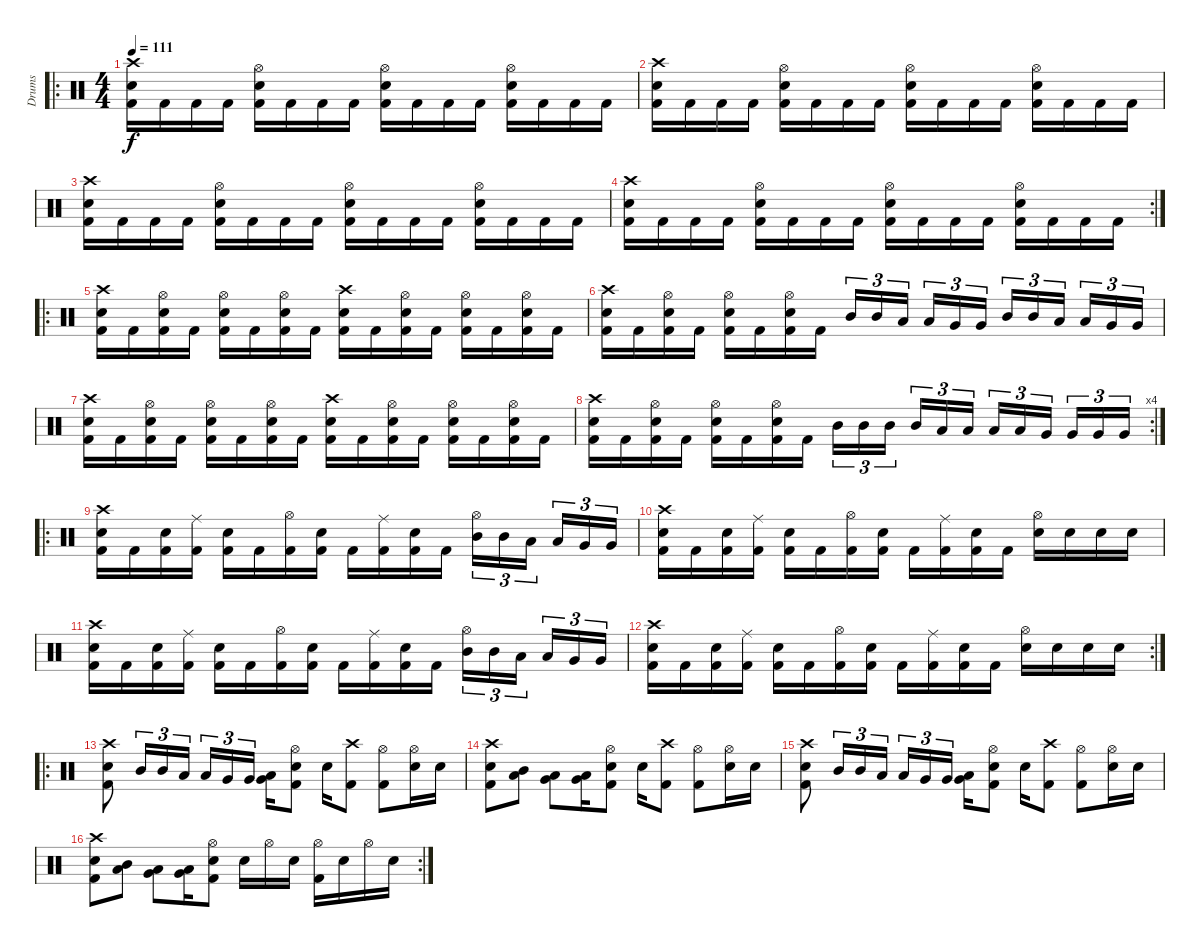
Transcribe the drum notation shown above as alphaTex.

\track ("Drums" "Drums") {instrument percussion}
\staff {score}
\articulation defaults
\ro
\ts (4 4)
\tempo 111
\clef neutral
\ks c
("Crash high (hit)" "Electric Snare (hit)" "Kick (hit) 2").16{dy f} "Kick (hit) 2".16 "Kick (hit) 2".16 "Kick (hit) 2".16 ("Hi-Hat (open)" "Electric Snare (hit)" "Kick (hit) 2").16 "Kick (hit) 2".16 "Kick (hit) 2".16 "Kick (hit) 2".16 ("Hi-Hat (open)" "Electric Snare (hit)" "Kick (hit) 2").16 "Kick (hit) 2".16 "Kick (hit) 2".16 "Kick (hit) 2".16 ("Hi-Hat (open)" "Electric Snare (hit)" "Kick (hit) 2").16 "Kick (hit) 2".16 "Kick (hit) 2".16 "Kick (hit) 2".16 |
("Crash high (hit)" "Electric Snare (hit)" "Kick (hit) 2").16 "Kick (hit) 2".16 "Kick (hit) 2".16 "Kick (hit) 2".16 ("Hi-Hat (open)" "Electric Snare (hit)" "Kick (hit) 2").16 "Kick (hit) 2".16 "Kick (hit) 2".16 "Kick (hit) 2".16 ("Hi-Hat (open)" "Electric Snare (hit)" "Kick (hit) 2").16 "Kick (hit) 2".16 "Kick (hit) 2".16 "Kick (hit) 2".16 ("Hi-Hat (open)" "Electric Snare (hit)" "Kick (hit) 2").16 "Kick (hit) 2".16 "Kick (hit) 2".16 "Kick (hit) 2".16 |
("Crash high (hit)" "Electric Snare (hit)" "Kick (hit) 2").16 "Kick (hit) 2".16 "Kick (hit) 2".16 "Kick (hit) 2".16 ("Hi-Hat (open)" "Electric Snare (hit)" "Kick (hit) 2").16 "Kick (hit) 2".16 "Kick (hit) 2".16 "Kick (hit) 2".16 ("Hi-Hat (open)" "Electric Snare (hit)" "Kick (hit) 2").16 "Kick (hit) 2".16 "Kick (hit) 2".16 "Kick (hit) 2".16 ("Hi-Hat (open)" "Electric Snare (hit)" "Kick (hit) 2").16 "Kick (hit) 2".16 "Kick (hit) 2".16 "Kick (hit) 2".16 |
\rc 2
("Crash high (hit)" "Electric Snare (hit)" "Kick (hit) 2").16 "Kick (hit) 2".16 "Kick (hit) 2".16 "Kick (hit) 2".16 ("Hi-Hat (open)" "Electric Snare (hit)" "Kick (hit) 2").16 "Kick (hit) 2".16 "Kick (hit) 2".16 "Kick (hit) 2".16 ("Hi-Hat (open)" "Electric Snare (hit)" "Kick (hit) 2").16 "Kick (hit) 2".16 "Kick (hit) 2".16 "Kick (hit) 2".16 ("Hi-Hat (open)" "Electric Snare (hit)" "Kick (hit) 2").16 "Kick (hit) 2".16 "Kick (hit) 2".16 "Kick (hit) 2".16 |
\ro
("Crash high (hit)" "Electric Snare (hit)" "Kick (hit) 2").16 "Kick (hit) 2".16 ("Hi-Hat (open)" "Electric Snare (hit)" "Kick (hit) 2").16 "Kick (hit) 2".16 ("Hi-Hat (open)" "Electric Snare (hit)" "Kick (hit) 2").16 "Kick (hit) 2".16 ("Hi-Hat (open)" "Electric Snare (hit)" "Kick (hit) 2").16 "Kick (hit) 2".16 ("Crash high (hit)" "Electric Snare (hit)" "Kick (hit) 2").16 "Kick (hit) 2".16 ("Hi-Hat (open)" "Electric Snare (hit)" "Kick (hit) 2").16 "Kick (hit) 2".16 ("Hi-Hat (open)" "Electric Snare (hit)" "Kick (hit) 2").16 "Kick (hit) 2".16 ("Hi-Hat (open)" "Electric Snare (hit)" "Kick (hit) 2").16 "Kick (hit) 2".16 |
("Crash high (hit)" "Electric Snare (hit)" "Kick (hit) 2").16 "Kick (hit) 2".16 ("Hi-Hat (open)" "Electric Snare (hit)" "Kick (hit) 2").16 "Kick (hit) 2".16 ("Hi-Hat (open)" "Electric Snare (hit)" "Kick (hit) 2").16 "Kick (hit) 2".16 ("Hi-Hat (open)" "Electric Snare (hit)" "Kick (hit) 2").16 "Kick (hit) 2".16 "Mid Tom (hit)".16{tu (3 2)} "Mid Tom (hit)".16{tu (3 2)} "Low Tom (hit)".16{tu (3 2)} "Low Tom (hit)".16{tu (3 2)} "Very Low Tom (hit)".16{tu (3 2)} "Very Low Tom (hit)".16{tu (3 2)} "Mid Tom (hit)".16{tu (3 2)} "Mid Tom (hit)".16{tu (3 2)} "Low Tom (hit)".16{tu (3 2)} "Low Tom (hit)".16{tu (3 2)} "Very Low Tom (hit)".16{tu (3 2)} "Very Low Tom (hit)".16{tu (3 2)} |
("Crash high (hit)" "Electric Snare (hit)" "Kick (hit) 2").16 "Kick (hit) 2".16 ("Hi-Hat (open)" "Electric Snare (hit)" "Kick (hit) 2").16 "Kick (hit) 2".16 ("Hi-Hat (open)" "Electric Snare (hit)" "Kick (hit) 2").16 "Kick (hit) 2".16 ("Hi-Hat (open)" "Electric Snare (hit)" "Kick (hit) 2").16 "Kick (hit) 2".16 ("Crash high (hit)" "Electric Snare (hit)" "Kick (hit) 2").16 "Kick (hit) 2".16 ("Hi-Hat (open)" "Electric Snare (hit)" "Kick (hit) 2").16 "Kick (hit) 2".16 ("Hi-Hat (open)" "Electric Snare (hit)" "Kick (hit) 2").16 "Kick (hit) 2".16 ("Hi-Hat (open)" "Electric Snare (hit)" "Kick (hit) 2").16 "Kick (hit) 2".16 |
\rc 4
("Crash high (hit)" "Electric Snare (hit)" "Kick (hit) 2").16 "Kick (hit) 2".16 ("Hi-Hat (open)" "Electric Snare (hit)" "Kick (hit) 2").16 "Kick (hit) 2".16 ("Hi-Hat (open)" "Electric Snare (hit)" "Kick (hit) 2").16 "Kick (hit) 2".16 ("Hi-Hat (open)" "Electric Snare (hit)" "Kick (hit) 2").16 "Kick (hit) 2".16 "Mid Tom (hit)".16{tu (3 2)} "Mid Tom (hit)".16{tu (3 2)} "Mid Tom (hit)".16{tu (3 2)} "Mid Tom (hit)".16{tu (3 2)} "Low Tom (hit)".16{tu (3 2)} "Low Tom (hit)".16{tu (3 2)} "Low Tom (hit)".16{tu (3 2)} "Low Tom (hit)".16{tu (3 2)} "Very Low Tom (hit)".16{tu (3 2)} "Very Low Tom (hit)".16{tu (3 2)} "Very Low Tom (hit)".16{tu (3 2)} "Very Low Tom (hit)".16{tu (3 2)} |
\ro
("Crash high (hit)" "Electric Snare (hit)" "Kick (hit) 2").16 "Kick (hit) 2".16 ("Electric Snare (hit)" "Kick (hit) 2").16 ("Ride (middle)" "Kick (hit) 2").16 ("Electric Snare (hit)" "Kick (hit) 2").16 "Kick (hit) 2".16 ("Hi-Hat (open)" "Kick (hit) 2").16 ("Electric Snare (hit)" "Kick (hit) 2").16 "Kick (hit) 2".16 ("Ride (middle)" "Kick (hit) 2").16 ("Electric Snare (hit)" "Kick (hit) 2").16 "Kick (hit) 2".16 ("Hi-Hat (open)" "Mid Tom (hit)").16{tu (3 2)} "Mid Tom (hit)".16{tu (3 2)} "Low Tom (hit)".16{tu (3 2)} "Low Tom (hit)".16{tu (3 2)} "Very Low Tom (hit)".16{tu (3 2)} "Very Low Tom (hit)".16{tu (3 2)} |
("Crash high (hit)" "Electric Snare (hit)" "Kick (hit) 2").16 "Kick (hit) 2".16 ("Electric Snare (hit)" "Kick (hit) 2").16 ("Ride (middle)" "Kick (hit) 2").16 ("Electric Snare (hit)" "Kick (hit) 2").16 "Kick (hit) 2".16 ("Hi-Hat (open)" "Kick (hit) 2").16 ("Electric Snare (hit)" "Kick (hit) 2").16 "Kick (hit) 2".16 ("Ride (middle)" "Kick (hit) 2").16 ("Electric Snare (hit)" "Kick (hit) 2").16 "Kick (hit) 2".16 ("Hi-Hat (open)" "Electric Snare (hit)").16 "Electric Snare (hit)".16 "Electric Snare (hit)".16 "Electric Snare (hit)".16 |
("Crash high (hit)" "Electric Snare (hit)" "Kick (hit) 2").16 "Kick (hit) 2".16 ("Electric Snare (hit)" "Kick (hit) 2").16 ("Ride (middle)" "Kick (hit) 2").16 ("Electric Snare (hit)" "Kick (hit) 2").16 "Kick (hit) 2".16 ("Hi-Hat (open)" "Kick (hit) 2").16 ("Electric Snare (hit)" "Kick (hit) 2").16 "Kick (hit) 2".16 ("Ride (middle)" "Kick (hit) 2").16 ("Electric Snare (hit)" "Kick (hit) 2").16 "Kick (hit) 2".16 ("Hi-Hat (open)" "Mid Tom (hit)").16{tu (3 2)} "Mid Tom (hit)".16{tu (3 2)} "Low Tom (hit)".16{tu (3 2)} "Low Tom (hit)".16{tu (3 2)} "Very Low Tom (hit)".16{tu (3 2)} "Very Low Tom (hit)".16{tu (3 2)} |
\rc 2
("Crash high (hit)" "Electric Snare (hit)" "Kick (hit) 2").16 "Kick (hit) 2".16 ("Electric Snare (hit)" "Kick (hit) 2").16 ("Ride (middle)" "Kick (hit) 2").16 ("Electric Snare (hit)" "Kick (hit) 2").16 "Kick (hit) 2".16 ("Hi-Hat (open)" "Kick (hit) 2").16 ("Electric Snare (hit)" "Kick (hit) 2").16 "Kick (hit) 2".16 ("Ride (middle)" "Kick (hit) 2").16 ("Electric Snare (hit)" "Kick (hit) 2").16 "Kick (hit) 2".16 ("Hi-Hat (open)" "Electric Snare (hit)").16 "Electric Snare (hit)".16 "Electric Snare (hit)".16 "Electric Snare (hit)".16 |
\ro
("Crash high (hit)" "Electric Snare (hit)" "Kick (hit) 2").8 "Mid Tom (hit)".16{tu (3 2)} "Mid Tom (hit)".16{tu (3 2)} "Low Tom (hit)".16{tu (3 2)} "Low Tom (hit)".16{tu (3 2)} "Very Low Tom (hit)".16{tu (3 2)} "Very Low Tom (hit)".16{tu (3 2)} ("Very Low Tom (hit)" "Low Floor Tom (hit)").16 ("Hi-Hat (open)" "Electric Snare (hit)" "Kick (hit) 2").8 "Electric Snare (hit)".16 ("Crash high (hit)" "Kick (hit) 2").8 ("Hi-Hat (open)" "Kick (hit) 2").8 ("Hi-Hat (open)" "Electric Snare (hit)").16 "Electric Snare (hit)".16 |
("Crash high (hit)" "Electric Snare (hit)" "Kick (hit) 2").8 ("Low Tom (hit)" "Mid Tom (hit)").8 ("Very Low Tom (hit)" "Low Tom (hit)").8 ("Very Low Tom (hit)" "Low Floor Tom (hit)").16 ("Hi-Hat (open)" "Electric Snare (hit)" "Kick (hit) 2").8 "Electric Snare (hit)".16 ("Crash high (hit)" "Kick (hit) 2").8 ("Hi-Hat (open)" "Kick (hit) 2").8 ("Hi-Hat (open)" "Electric Snare (hit)").16 "Electric Snare (hit)".16 |
("Crash high (hit)" "Electric Snare (hit)" "Kick (hit) 2").8 "Mid Tom (hit)".16{tu (3 2)} "Mid Tom (hit)".16{tu (3 2)} "Low Tom (hit)".16{tu (3 2)} "Low Tom (hit)".16{tu (3 2)} "Very Low Tom (hit)".16{tu (3 2)} "Very Low Tom (hit)".16{tu (3 2)} ("Very Low Tom (hit)" "Low Floor Tom (hit)").16 ("Hi-Hat (open)" "Electric Snare (hit)" "Kick (hit) 2").8 "Electric Snare (hit)".16 ("Crash high (hit)" "Kick (hit) 2").8 ("Hi-Hat (open)" "Kick (hit) 2").8 ("Hi-Hat (open)" "Electric Snare (hit)").16 "Electric Snare (hit)".16 |
\rc 2
("Crash high (hit)" "Electric Snare (hit)" "Kick (hit) 2").8 ("Low Tom (hit)" "Mid Tom (hit)").8 ("Very Low Tom (hit)" "Low Tom (hit)").8 ("Very Low Tom (hit)" "Low Floor Tom (hit)").16 ("Hi-Hat (open)" "Electric Snare (hit)" "Kick (hit) 2").8 "Electric Snare (hit)".16 "Hi-Hat (open)".16 "Electric Snare (hit)".16 ("Hi-Hat (open)" "Kick (hit) 2").16 "Electric Snare (hit)".16 "Hi-Hat (open)".16 "Electric Snare (hit)".16
